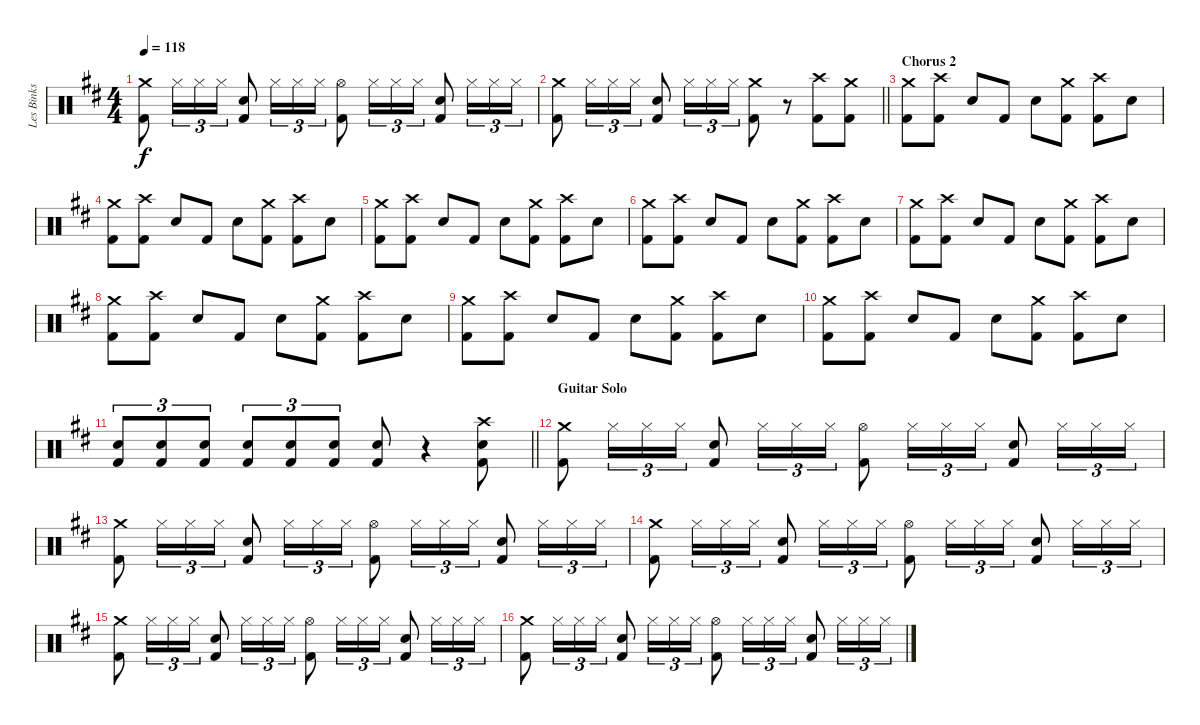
\track ("Les Binks" "Les Binks") {instrument percussion}
\staff {score}
\articulation defaults
\ts (4 4)
\tempo 118
\clef neutral
\ks d
("Crash medium (hit)" "Kick (hit) 2").8{dy f} "Hi-Hat (closed)".16{tu (3 2)} "Hi-Hat (closed)".16{tu (3 2)} "Hi-Hat (closed)".16{tu (3 2)} ("Snare (hit) 2" "Kick (hit) 2").8 "Hi-Hat (closed)".16{tu (3 2)} "Hi-Hat (closed)".16{tu (3 2)} "Hi-Hat (closed)".16{tu (3 2)} ("Hi-Hat (open)" "Kick (hit) 2").8 "Hi-Hat (closed)".16{tu (3 2)} "Hi-Hat (closed)".16{tu (3 2)} "Hi-Hat (closed)".16{tu (3 2)} ("Snare (hit) 2" "Kick (hit) 2").8 "Hi-Hat (closed)".16{tu (3 2)} "Hi-Hat (closed)".16{tu (3 2)} "Hi-Hat (closed)".16{tu (3 2)} |
\barLineRight lightlight
("Crash medium (hit)" "Kick (hit) 2").8 "Hi-Hat (closed)".16{tu (3 2)} "Hi-Hat (closed)".16{tu (3 2)} "Hi-Hat (closed)".16{tu (3 2)} ("Snare (hit) 2" "Kick (hit) 2").8 "Hi-Hat (closed)".16{tu (3 2)} "Hi-Hat (closed)".16{tu (3 2)} "Hi-Hat (closed)".16{tu (3 2)} ("Crash medium (hit)" "Kick (hit) 2").8 r.8 ("Crash high (hit)" "Kick (hit) 2").8 ("Crash medium (hit)" "Kick (hit) 2").8 |
\section ("" "Chorus 2")
("Crash medium (hit)" "Kick (hit) 2").8 ("Crash high (hit)" "Kick (hit) 2").8 "Snare (hit) 2".8 "Kick (hit) 2".8 "Snare (hit) 2".8 ("Crash medium (hit)" "Kick (hit) 2").8 ("Crash high (hit)" "Kick (hit) 2").8 "Snare (hit) 2".8 |
("Crash medium (hit)" "Kick (hit) 2").8 ("Crash high (hit)" "Kick (hit) 2").8 "Snare (hit) 2".8 "Kick (hit) 2".8 "Snare (hit) 2".8 ("Crash medium (hit)" "Kick (hit) 2").8 ("Crash high (hit)" "Kick (hit) 2").8 "Snare (hit) 2".8 |
("Crash medium (hit)" "Kick (hit) 2").8 ("Crash high (hit)" "Kick (hit) 2").8 "Snare (hit) 2".8 "Kick (hit) 2".8 "Snare (hit) 2".8 ("Crash medium (hit)" "Kick (hit) 2").8 ("Crash high (hit)" "Kick (hit) 2").8 "Snare (hit) 2".8 |
("Crash medium (hit)" "Kick (hit) 2").8 ("Crash high (hit)" "Kick (hit) 2").8 "Snare (hit) 2".8 "Kick (hit) 2".8 "Snare (hit) 2".8 ("Crash medium (hit)" "Kick (hit) 2").8 ("Crash high (hit)" "Kick (hit) 2").8 "Snare (hit) 2".8 |
("Crash medium (hit)" "Kick (hit) 2").8 ("Crash high (hit)" "Kick (hit) 2").8 "Snare (hit) 2".8 "Kick (hit) 2".8 "Snare (hit) 2".8 ("Crash medium (hit)" "Kick (hit) 2").8 ("Crash high (hit)" "Kick (hit) 2").8 "Snare (hit) 2".8 |
("Crash medium (hit)" "Kick (hit) 2").8 ("Crash high (hit)" "Kick (hit) 2").8 "Snare (hit) 2".8 "Kick (hit) 2".8 "Snare (hit) 2".8 ("Crash medium (hit)" "Kick (hit) 2").8 ("Crash high (hit)" "Kick (hit) 2").8 "Snare (hit) 2".8 |
("Crash medium (hit)" "Kick (hit) 2").8 ("Crash high (hit)" "Kick (hit) 2").8 "Snare (hit) 2".8 "Kick (hit) 2".8 "Snare (hit) 2".8 ("Crash medium (hit)" "Kick (hit) 2").8 ("Crash high (hit)" "Kick (hit) 2").8 "Snare (hit) 2".8 |
("Crash medium (hit)" "Kick (hit) 2").8 ("Crash high (hit)" "Kick (hit) 2").8 "Snare (hit) 2".8 "Kick (hit) 2".8 "Snare (hit) 2".8 ("Crash medium (hit)" "Kick (hit) 2").8 ("Crash high (hit)" "Kick (hit) 2").8 "Snare (hit) 2".8 |
\barLineRight lightlight
("Snare (hit) 2" "Kick (hit) 2").8{tu (3 2)} ("Snare (hit) 2" "Kick (hit) 2").8{tu (3 2)} ("Snare (hit) 2" "Kick (hit) 2").8{tu (3 2)} ("Snare (hit) 2" "Kick (hit) 2").8{tu (3 2)} ("Snare (hit) 2" "Kick (hit) 2").8{tu (3 2)} ("Snare (hit) 2" "Kick (hit) 2").8{tu (3 2)} ("Snare (hit) 2" "Kick (hit) 2").8 r.4 ("Crash high (hit)" "Snare (hit) 2" "Kick (hit) 2").8 |
\section ("" "Guitar Solo")
("Crash medium (hit)" "Kick (hit) 2").8 "Hi-Hat (closed)".16{tu (3 2)} "Hi-Hat (closed)".16{tu (3 2)} "Hi-Hat (closed)".16{tu (3 2)} ("Snare (hit) 2" "Kick (hit) 2").8 "Hi-Hat (closed)".16{tu (3 2)} "Hi-Hat (closed)".16{tu (3 2)} "Hi-Hat (closed)".16{tu (3 2)} ("Hi-Hat (open)" "Kick (hit) 2").8 "Hi-Hat (closed)".16{tu (3 2)} "Hi-Hat (closed)".16{tu (3 2)} "Hi-Hat (closed)".16{tu (3 2)} ("Snare (hit) 2" "Kick (hit) 2").8 "Hi-Hat (closed)".16{tu (3 2)} "Hi-Hat (closed)".16{tu (3 2)} "Hi-Hat (closed)".16{tu (3 2)} |
("Crash medium (hit)" "Kick (hit) 2").8 "Hi-Hat (closed)".16{tu (3 2)} "Hi-Hat (closed)".16{tu (3 2)} "Hi-Hat (closed)".16{tu (3 2)} ("Snare (hit) 2" "Kick (hit) 2").8 "Hi-Hat (closed)".16{tu (3 2)} "Hi-Hat (closed)".16{tu (3 2)} "Hi-Hat (closed)".16{tu (3 2)} ("Hi-Hat (open)" "Kick (hit) 2").8 "Hi-Hat (closed)".16{tu (3 2)} "Hi-Hat (closed)".16{tu (3 2)} "Hi-Hat (closed)".16{tu (3 2)} ("Snare (hit) 2" "Kick (hit) 2").8 "Hi-Hat (closed)".16{tu (3 2)} "Hi-Hat (closed)".16{tu (3 2)} "Hi-Hat (closed)".16{tu (3 2)} |
("Crash medium (hit)" "Kick (hit) 2").8 "Hi-Hat (closed)".16{tu (3 2)} "Hi-Hat (closed)".16{tu (3 2)} "Hi-Hat (closed)".16{tu (3 2)} ("Snare (hit) 2" "Kick (hit) 2").8 "Hi-Hat (closed)".16{tu (3 2)} "Hi-Hat (closed)".16{tu (3 2)} "Hi-Hat (closed)".16{tu (3 2)} ("Hi-Hat (open)" "Kick (hit) 2").8 "Hi-Hat (closed)".16{tu (3 2)} "Hi-Hat (closed)".16{tu (3 2)} "Hi-Hat (closed)".16{tu (3 2)} ("Snare (hit) 2" "Kick (hit) 2").8 "Hi-Hat (closed)".16{tu (3 2)} "Hi-Hat (closed)".16{tu (3 2)} "Hi-Hat (closed)".16{tu (3 2)} |
("Crash medium (hit)" "Kick (hit) 2").8 "Hi-Hat (closed)".16{tu (3 2)} "Hi-Hat (closed)".16{tu (3 2)} "Hi-Hat (closed)".16{tu (3 2)} ("Snare (hit) 2" "Kick (hit) 2").8 "Hi-Hat (closed)".16{tu (3 2)} "Hi-Hat (closed)".16{tu (3 2)} "Hi-Hat (closed)".16{tu (3 2)} ("Hi-Hat (open)" "Kick (hit) 2").8 "Hi-Hat (closed)".16{tu (3 2)} "Hi-Hat (closed)".16{tu (3 2)} "Hi-Hat (closed)".16{tu (3 2)} ("Snare (hit) 2" "Kick (hit) 2").8 "Hi-Hat (closed)".16{tu (3 2)} "Hi-Hat (closed)".16{tu (3 2)} "Hi-Hat (closed)".16{tu (3 2)} |
("Crash medium (hit)" "Kick (hit) 2").8 "Hi-Hat (closed)".16{tu (3 2)} "Hi-Hat (closed)".16{tu (3 2)} "Hi-Hat (closed)".16{tu (3 2)} ("Snare (hit) 2" "Kick (hit) 2").8 "Hi-Hat (closed)".16{tu (3 2)} "Hi-Hat (closed)".16{tu (3 2)} "Hi-Hat (closed)".16{tu (3 2)} ("Hi-Hat (open)" "Kick (hit) 2").8 "Hi-Hat (closed)".16{tu (3 2)} "Hi-Hat (closed)".16{tu (3 2)} "Hi-Hat (closed)".16{tu (3 2)} ("Snare (hit) 2" "Kick (hit) 2").8 "Hi-Hat (closed)".16{tu (3 2)} "Hi-Hat (closed)".16{tu (3 2)} "Hi-Hat (closed)".16{tu (3 2)}
